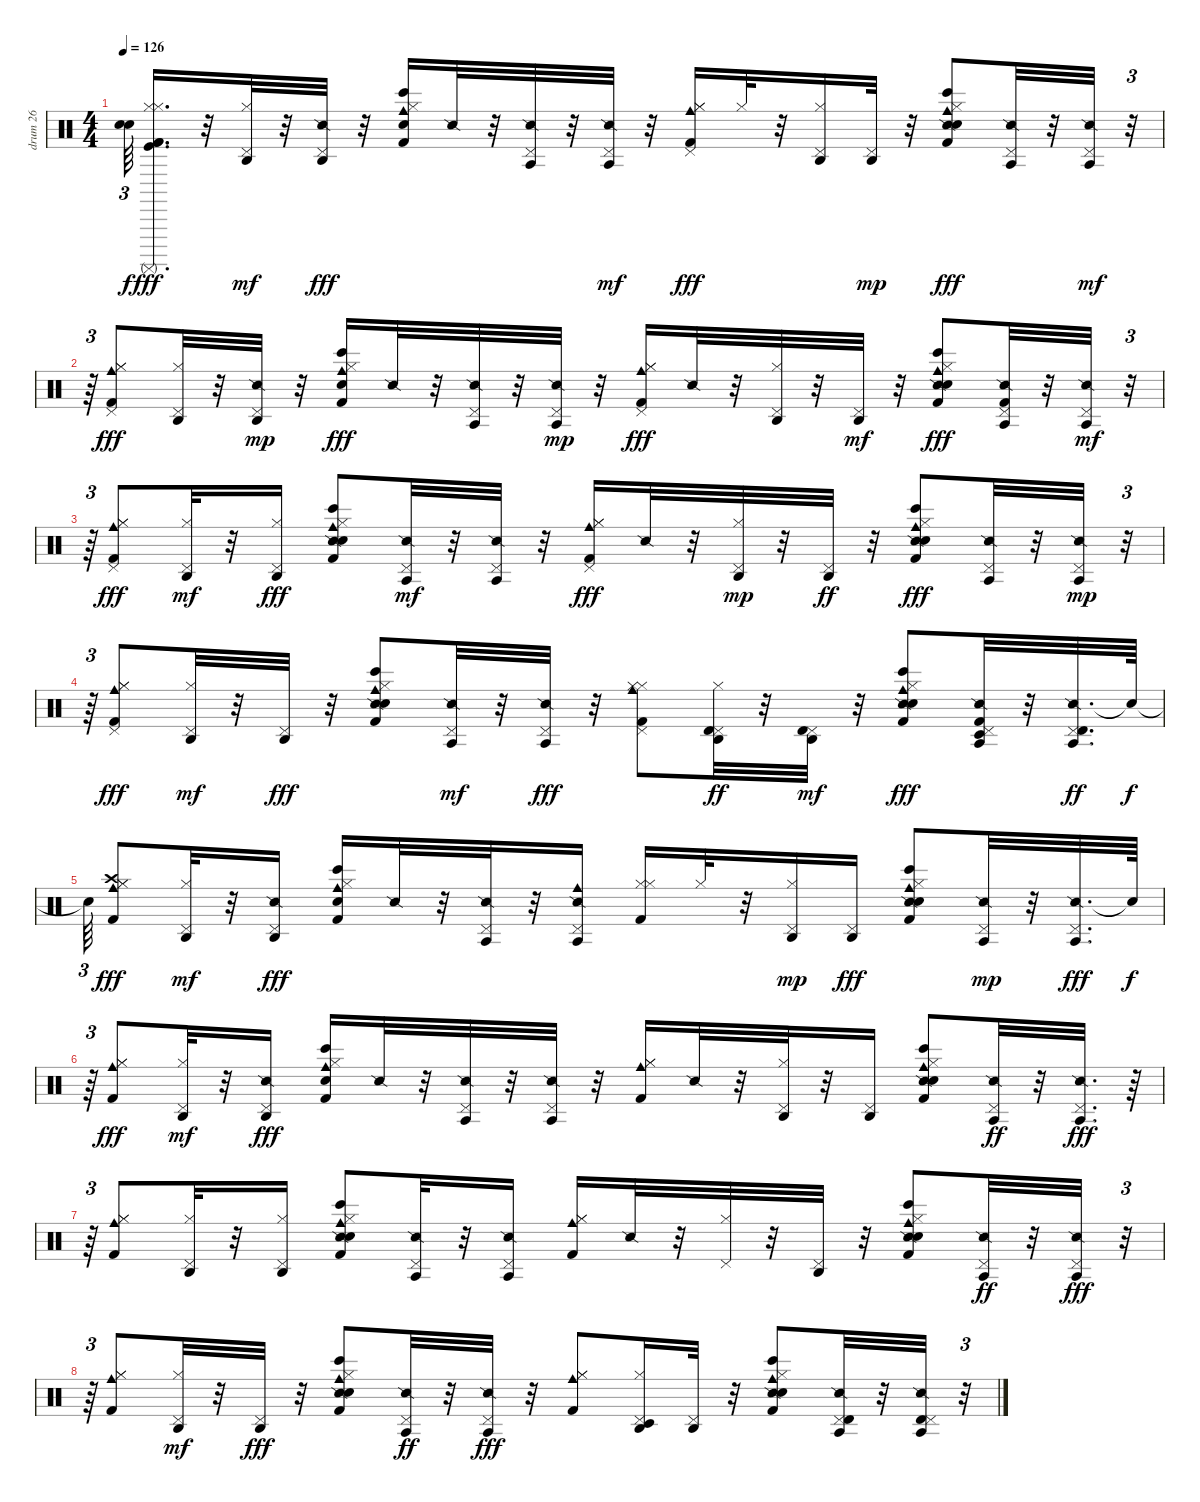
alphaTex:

\track ("drum 26" "drum 26") {instrument percussion}
\staff {score}
\articulation defaults
\ts (4 4)
\tempo 126
\clef neutral
\ks c
("Snare (hit)"{t} "Snare (hit)"{t}).64{tu (3 2) dy f} ("Kick (hit)" "Kick (hit) 2" "Surdo (mute)" "Hi-Hat (closed)" "Kick (hit) 2" "Hi-Hat (closed)").16{d dy fff} r.32 ("Hi-Hat (closed)" "Pedal Hi-Hat (hit)" "Agogo high (hit)").32{dy mf} r.32 ("Snare (side stick) 2" "Pedal Hi-Hat (hit)" "Agogo high (hit)").32{dy fff} r.32 ("Bongo High (hit)" "Kick (hit) 2" "Hand Clap (hit)" "Hi-Hat (closed)" "Cowbell medium (hit)").16 "Snare (side stick) 2".32 r.32 ("Snare (side stick) 2" "Pedal Hi-Hat (hit)" "Agogo tow (hit)").32 r.32 ("Snare (side stick) 2" "Pedal Hi-Hat (hit)" "Agogo tow (hit)").32{dy mf} r.32 ("Hi-Hat (closed)" "Kick (hit) 2" "Hi-Hat (closed)" "Pedal Hi-Hat (hit)" "Cowbell medium (hit)").16{dy fff} "Hi-Hat (closed)".32 r.32 ("Hi-Hat (closed)" "Pedal Hi-Hat (hit)" "Agogo high (hit)").16 ("Pedal Hi-Hat (hit)" "Agogo high (hit)").32{dy mp} r.32 ("Bongo High (hit)" "Snare (side stick) 2" "Kick (hit) 2" "Hand Clap (hit)" "Hi-Hat (closed)" "Cowbell medium (hit)").8{dy fff} ("Snare (side stick) 2" "Pedal Hi-Hat (hit)" "Agogo tow (hit)").32 r.32 ("Snare (side stick) 2" "Pedal Hi-Hat (hit)" "Agogo tow (hit)").32{dy mf} r.32{tu (3 2)} |
r.64{tu (3 2)} ("Hi-Hat (closed)" "Kick (hit) 2" "Hi-Hat (closed)" "Pedal Hi-Hat (hit)" "Cowbell medium (hit)").8{dy fff} ("Hi-Hat (closed)" "Pedal Hi-Hat (hit)" "Agogo high (hit)").32 r.32 ("Snare (side stick) 2" "Pedal Hi-Hat (hit)" "Agogo high (hit)").32{dy mp} r.32 ("Bongo High (hit)" "Kick (hit) 2" "Hand Clap (hit)" "Hi-Hat (closed)" "Cowbell medium (hit)").16{dy fff} "Snare (side stick) 2".32 r.32 ("Snare (side stick) 2" "Pedal Hi-Hat (hit)" "Agogo tow (hit)").32 r.32 ("Snare (side stick) 2" "Pedal Hi-Hat (hit)" "Agogo tow (hit)").32{dy mp} r.32 ("Hi-Hat (closed)" "Kick (hit) 2" "Hi-Hat (closed)" "Pedal Hi-Hat (hit)" "Cowbell medium (hit)").16{dy fff} "Snare (side stick) 2".32 r.32 ("Hi-Hat (closed)" "Pedal Hi-Hat (hit)" "Agogo high (hit)").32 r.32 ("Pedal Hi-Hat (hit)" "Agogo high (hit)").32{dy mf} r.32 ("Bongo High (hit)" "Snare (side stick) 2" "Kick (hit) 2" "Hand Clap (hit)" "Hi-Hat (closed)" "Cowbell medium (hit)").8{dy fff} ("Snare (side stick) 2" "Kick (hit) 2" "Pedal Hi-Hat (hit)" "Agogo tow (hit)").32 r.32 ("Snare (side stick) 2" "Pedal Hi-Hat (hit)" "Agogo tow (hit)").32{dy mf} r.32{tu (3 2)} |
r.64{tu (3 2)} ("Hi-Hat (closed)" "Kick (hit) 2" "Hi-Hat (closed)" "Pedal Hi-Hat (hit)" "Cowbell medium (hit)").8{dy fff} ("Hi-Hat (closed)" "Pedal Hi-Hat (hit)" "Agogo high (hit)").32{dy mf} r.32 ("Hi-Hat (closed)" "Pedal Hi-Hat (hit)" "Agogo high (hit)").16{dy fff} ("Bongo High (hit)" "Snare (side stick) 2" "Kick (hit) 2" "Hand Clap (hit)" "Hi-Hat (closed)" "Cowbell medium (hit)").8 ("Snare (side stick) 2" "Pedal Hi-Hat (hit)" "Agogo tow (hit)").32{dy mf} r.32 ("Snare (side stick) 2" "Pedal Hi-Hat (hit)" "Agogo tow (hit)").32 r.32 ("Hi-Hat (closed)" "Kick (hit) 2" "Hi-Hat (closed)" "Pedal Hi-Hat (hit)" "Cowbell medium (hit)").16{dy fff} "Snare (side stick) 2".32 r.32 ("Hi-Hat (closed)" "Pedal Hi-Hat (hit)" "Agogo high (hit)").32{dy mp} r.32 ("Pedal Hi-Hat (hit)" "Agogo high (hit)").32{dy ff} r.32 ("Bongo High (hit)" "Snare (side stick) 2" "Kick (hit) 2" "Hand Clap (hit)" "Hi-Hat (closed)" "Cowbell medium (hit)").8{dy fff} ("Snare (side stick) 2" "Pedal Hi-Hat (hit)" "Agogo tow (hit)").32 r.32 ("Snare (side stick) 2" "Pedal Hi-Hat (hit)" "Agogo tow (hit)").32{dy mp} r.32{tu (3 2)} |
r.64{tu (3 2)} ("Hi-Hat (closed)" "Kick (hit) 2" "Hi-Hat (closed)" "Pedal Hi-Hat (hit)" "Cowbell medium (hit)").8{dy fff} ("Hi-Hat (closed)" "Pedal Hi-Hat (hit)" "Agogo high (hit)").32{dy mf} r.32 ("Pedal Hi-Hat (hit)" "Agogo high (hit)").32{dy fff} r.32 ("Bongo High (hit)" "Snare (side stick) 2" "Kick (hit) 2" "Hand Clap (hit)" "Hi-Hat (closed)" "Cowbell medium (hit)").8 ("Snare (side stick) 2" "Pedal Hi-Hat (hit)" "Agogo tow (hit)").32{dy mf} r.32 ("Snare (side stick) 2" "Pedal Hi-Hat (hit)" "Agogo tow (hit)").32{dy fff} r.32 ("Hi-Hat (closed)" "Kick (hit) 2" "Hi-Hat (closed)" "Pedal Hi-Hat (hit)" "Cowbell medium (hit)").8 ("Hi-Hat (closed)" "Pedal Hi-Hat (hit)" "Timbale high (hit)" "Agogo high (hit)").32{dy ff} r.32 ("Pedal Hi-Hat (hit)" "Timbale high (hit)" "Agogo high (hit)").32{dy mf} r.32 ("Bongo High (hit)" "Snare (side stick) 2" "Kick (hit) 2" "Hand Clap (hit)" "Hi-Hat (closed)" "Cowbell medium (hit)").8{dy fff} ("Snare (side stick) 2" "Kick (hit) 2" "Pedal Hi-Hat (hit)" "Timbale low (hit)" "Agogo tow (hit)").32 r.32 ("Snare (side stick) 2" "Pedal Hi-Hat (hit)" "Timbale high (hit)" "Agogo tow (hit)").32{d dy ff} "Snare (hit)"{t}.64{dy f} |
"Snare (hit)"{t}.64{tu (3 2)} ("Hi-Hat (closed)" "Kick (hit) 2" "Hi-Hat (closed)" "Crash high (hit)" "Cowbell medium (hit)").8{dy fff} ("Hi-Hat (closed)" "Pedal Hi-Hat (hit)" "Agogo high (hit)").32{dy mf} r.32 ("Snare (side stick) 2" "Agogo high (hit)" "Pedal Hi-Hat (hit)").16{dy fff} ("Bongo High (hit)" "Kick (hit) 2" "Hand Clap (hit)" "Hi-Hat (closed)" "Cowbell medium (hit)").16 "Snare (side stick) 2".32 r.32 ("Snare (side stick) 2" "Pedal Hi-Hat (hit)" "Agogo tow (hit)").32 r.32 ("Snare (side stick) 2" "Cowbell medium (hit)" "Agogo tow (hit)" "Pedal Hi-Hat (hit)").16 ("Hi-Hat (closed)" "Kick (hit) 2" "Hi-Hat (closed)").16 "Hi-Hat (closed)".32 r.32 ("Hi-Hat (closed)" "Pedal Hi-Hat (hit)" "Agogo high (hit)").16{dy mp} ("Agogo high (hit)" "Pedal Hi-Hat (hit)").16{dy fff} ("Bongo High (hit)" "Snare (side stick) 2" "Kick (hit) 2" "Hand Clap (hit)" "Hi-Hat (closed)" "Cowbell medium (hit)").8 ("Snare (side stick) 2" "Pedal Hi-Hat (hit)" "Agogo tow (hit)").32{dy mp} r.32 ("Snare (side stick) 2" "Agogo tow (hit)" "Pedal Hi-Hat (hit)").32{d dy fff} "Snare (hit)"{t}.64{dy f} |
r.64{tu (3 2)} ("Hi-Hat (closed)" "Kick (hit) 2" "Hi-Hat (closed)" "Cowbell medium (hit)").8{dy fff} ("Hi-Hat (closed)" "Pedal Hi-Hat (hit)" "Agogo high (hit)").32{dy mf} r.32 ("Snare (side stick) 2" "Agogo high (hit)" "Pedal Hi-Hat (hit)").16{dy fff} ("Bongo High (hit)" "Kick (hit) 2" "Hand Clap (hit)" "Hi-Hat (closed)" "Cowbell medium (hit)").16 "Snare (side stick) 2".32 r.32 ("Snare (side stick) 2" "Pedal Hi-Hat (hit)" "Agogo tow (hit)").32 r.32 ("Snare (side stick) 2" "Agogo tow (hit)" "Pedal Hi-Hat (hit)").32 r.32 ("Hi-Hat (closed)" "Kick (hit) 2" "Hi-Hat (closed)" "Cowbell medium (hit)").16 "Snare (side stick) 2".32 r.32 ("Hi-Hat (closed)" "Pedal Hi-Hat (hit)" "Agogo high (hit)").32 r.32 ("Agogo high (hit)" "Pedal Hi-Hat (hit)").16 ("Bongo High (hit)" "Snare (side stick) 2" "Kick (hit) 2" "Hand Clap (hit)" "Hi-Hat (closed)" "Cowbell medium (hit)").8 ("Snare (side stick) 2" "Pedal Hi-Hat (hit)" "Agogo tow (hit)").32{dy ff} r.32 ("Snare (side stick) 2" "Agogo tow (hit)" "Pedal Hi-Hat (hit)").32{d dy fff} r.64 |
r.64{tu (3 2)} ("Hi-Hat (closed)" "Kick (hit) 2" "Hi-Hat (closed)" "Cowbell medium (hit)").8 ("Hi-Hat (closed)" "Pedal Hi-Hat (hit)" "Agogo high (hit)").32 r.32 ("Hi-Hat (closed)" "Agogo high (hit)" "Pedal Hi-Hat (hit)").16 ("Bongo High (hit)" "Snare (side stick) 2" "Kick (hit) 2" "Hand Clap (hit)" "Hi-Hat (closed)" "Cowbell medium (hit)").8 ("Snare (side stick) 2" "Pedal Hi-Hat (hit)" "Agogo tow (hit)").32 r.32 ("Snare (side stick) 2" "Agogo tow (hit)" "Pedal Hi-Hat (hit)").16 ("Hi-Hat (closed)" "Kick (hit) 2" "Hi-Hat (closed)" "Cowbell medium (hit)").16 "Snare (side stick) 2".32 r.32 ("Hi-Hat (closed)" "Pedal Hi-Hat (hit)").32 r.32 ("Agogo high (hit)" "Pedal Hi-Hat (hit)").32 r.32 ("Bongo High (hit)" "Snare (side stick) 2" "Kick (hit) 2" "Hand Clap (hit)" "Hi-Hat (closed)" "Cowbell medium (hit)").8 ("Snare (side stick) 2" "Pedal Hi-Hat (hit)" "Agogo tow (hit)").32{dy ff} r.32 ("Snare (side stick) 2" "Agogo tow (hit)" "Pedal Hi-Hat (hit)").32{dy fff} r.32{tu (3 2)} |
r.64{tu (3 2)} ("Hi-Hat (closed)" "Kick (hit) 2" "Hi-Hat (closed)" "Cowbell medium (hit)").8 ("Hi-Hat (closed)" "Pedal Hi-Hat (hit)" "Agogo high (hit)").32{dy mf} r.32 ("Agogo high (hit)" "Pedal Hi-Hat (hit)").32{dy fff} r.32 ("Bongo High (hit)" "Snare (side stick) 2" "Kick (hit) 2" "Hand Clap (hit)" "Hi-Hat (closed)" "Cowbell medium (hit)").8 ("Snare (side stick) 2" "Pedal Hi-Hat (hit)" "Agogo tow (hit)").32{dy ff} r.32 ("Snare (side stick) 2" "Agogo tow (hit)" "Pedal Hi-Hat (hit)").32{dy fff} r.32 ("Hi-Hat (closed)" "Kick (hit) 2" "Hi-Hat (closed)" "Cowbell medium (hit)").8 ("Hi-Hat (closed)" "Pedal Hi-Hat (hit)" "Timbale low (hit)" "Agogo high (hit)").16 ("Agogo high (hit)" "Pedal Hi-Hat (hit)").32 r.32 ("Bongo High (hit)" "Snare (side stick) 2" "Kick (hit) 2" "Hand Clap (hit)" "Hi-Hat (closed)" "Cowbell medium (hit)").8 ("Snare (side stick) 2" "Pedal Hi-Hat (hit)" "Timbale high (hit)" "Agogo tow (hit)").32 r.32 ("Snare (side stick) 2" "Timbale high (hit)" "Agogo tow (hit)" "Pedal Hi-Hat (hit)").32 r.32{tu (3 2)}
